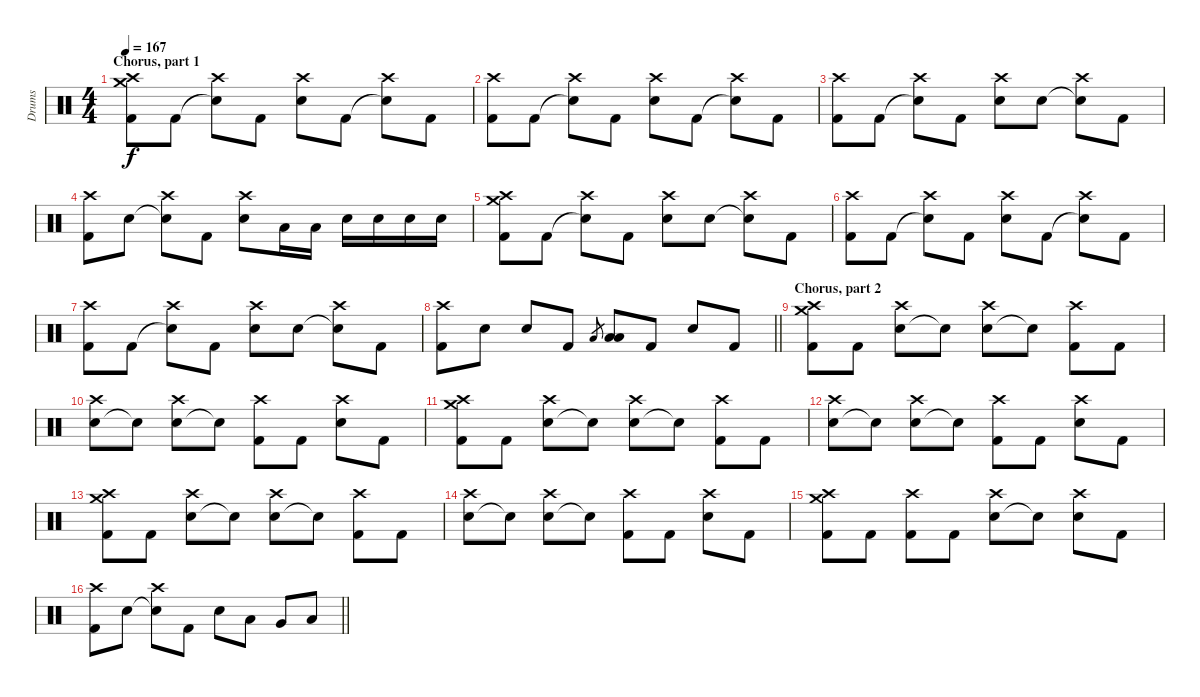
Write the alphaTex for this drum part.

\track ("Drums" "Drums") {instrument percussion}
\staff {score}
\articulation defaults
\ts (4 4)
\section ("" "Chorus, part 1")
\tempo 167
\clef neutral
\ks c
("Kick (hit) 2" "Crash medium (hit)" "Crash high (hit)").8{dy f} "Kick (hit) 2".8 ("Snare (hit)"{t} "Crash high (hit)").8 "Kick (hit) 2".8 ("Electric Snare (hit)" "Crash high (hit)").8 "Kick (hit) 2".8 ("Snare (hit)"{t} "Crash high (hit)").8 "Kick (hit) 2".8 |
("Kick (hit) 2" "Crash high (hit)").8 "Kick (hit) 2".8 ("Snare (hit)"{t} "Crash high (hit)").8 "Kick (hit) 2".8 ("Electric Snare (hit)" "Crash high (hit)").8 "Kick (hit) 2".8 ("Snare (hit)"{t} "Crash high (hit)").8 "Kick (hit) 2".8 |
("Kick (hit) 2" "Crash high (hit)").8 "Kick (hit) 2".8 ("Snare (hit)"{t} "Crash high (hit)").8 "Kick (hit) 2".8 ("Electric Snare (hit)" "Crash high (hit)").8 "Electric Snare (hit)".8 ("Snare (hit)"{t} "Crash high (hit)").8 "Kick (hit) 2".8 |
("Kick (hit) 2" "Crash high (hit)").8 "Electric Snare (hit)".8 ("Snare (hit)"{t} "Crash high (hit)").8 "Kick (hit) 2".8 ("Electric Snare (hit)" "Crash high (hit)").8 "Low Tom (hit)".16 "Low Tom (hit)".16 "Electric Snare (hit)".16 "Electric Snare (hit)".16 "Electric Snare (hit)".16 "Electric Snare (hit)".16 |
("Kick (hit) 2" "Crash medium (hit)" "Crash high (hit)").8 "Kick (hit) 2".8 ("Snare (hit)"{t} "Crash high (hit)").8 "Kick (hit) 2".8 ("Electric Snare (hit)" "Crash high (hit)").8 "Electric Snare (hit)".8 ("Snare (hit)"{t} "Crash high (hit)").8 "Kick (hit) 2".8 |
("Kick (hit) 2" "Crash high (hit)").8 "Kick (hit) 2".8 ("Snare (hit)"{t} "Crash high (hit)").8 "Kick (hit) 2".8 ("Electric Snare (hit)" "Crash high (hit)").8 "Kick (hit) 2".8 ("Snare (hit)"{t} "Crash high (hit)").8 "Kick (hit) 2".8 |
("Kick (hit) 2" "Crash high (hit)").8 "Kick (hit) 2".8 ("Snare (hit)"{t} "Crash high (hit)").8 "Kick (hit) 2".8 ("Electric Snare (hit)" "Crash high (hit)").8 "Electric Snare (hit)".8 ("Snare (hit)"{t} "Crash high (hit)").8 "Kick (hit) 2".8 |
\barLineRight lightlight
("Kick (hit) 2" "Crash high (hit)").8 "Electric Snare (hit)".8 "Electric Snare (hit)".8 "Kick (hit) 2".8 "Low Tom (hit)".8{gr} ("Low Tom (hit)" "Low Floor Tom (hit)").8 "Kick (hit) 2".8 "Electric Snare (hit)".8 "Kick (hit) 2".8 |
\section ("" "Chorus, part 2")
("Kick (hit) 2" "Crash medium (hit)" "Crash high (hit)").8 "Kick (hit) 2".8 ("Electric Snare (hit)" "Crash high (hit)").8 "Snare (hit)"{t}.8 ("Electric Snare (hit)" "Crash high (hit)").8 "Snare (hit)"{t}.8 ("Kick (hit) 2" "Crash high (hit)").8 "Kick (hit) 2".8 |
("Electric Snare (hit)" "Crash high (hit)").8 "Snare (hit)"{t}.8 ("Electric Snare (hit)" "Crash high (hit)").8 "Snare (hit)"{t}.8 ("Kick (hit) 2" "Crash high (hit)").8 "Kick (hit) 2".8 ("Electric Snare (hit)" "Crash high (hit)").8 "Kick (hit) 2".8 |
("Kick (hit) 2" "Crash medium (hit)" "Crash high (hit)").8 "Kick (hit) 2".8 ("Electric Snare (hit)" "Crash high (hit)").8 "Snare (hit)"{t}.8 ("Electric Snare (hit)" "Crash high (hit)").8 "Snare (hit)"{t}.8 ("Kick (hit) 2" "Crash high (hit)").8 "Kick (hit) 2".8 |
("Electric Snare (hit)" "Crash high (hit)").8 "Snare (hit)"{t}.8 ("Electric Snare (hit)" "Crash high (hit)").8 "Snare (hit)"{t}.8 ("Kick (hit) 2" "Crash high (hit)").8 "Kick (hit) 2".8 ("Electric Snare (hit)" "Crash high (hit)").8 "Kick (hit) 2".8 |
("Kick (hit) 2" "Crash medium (hit)" "Crash high (hit)").8 "Kick (hit) 2".8 ("Electric Snare (hit)" "Crash high (hit)").8 "Snare (hit)"{t}.8 ("Electric Snare (hit)" "Crash high (hit)").8 "Snare (hit)"{t}.8 ("Kick (hit) 2" "Crash high (hit)").8 "Kick (hit) 2".8 |
("Electric Snare (hit)" "Crash high (hit)").8 "Snare (hit)"{t}.8 ("Electric Snare (hit)" "Crash high (hit)").8 "Snare (hit)"{t}.8 ("Kick (hit) 2" "Crash high (hit)").8 "Kick (hit) 2".8 ("Electric Snare (hit)" "Crash high (hit)").8 "Kick (hit) 2".8 |
("Kick (hit) 2" "Crash medium (hit)" "Crash high (hit)").8 "Kick (hit) 2".8 ("Kick (hit) 2" "Crash high (hit)").8 "Kick (hit) 2".8 ("Electric Snare (hit)" "Crash high (hit)").8 "Snare (hit)"{t}.8 ("Electric Snare (hit)" "Crash high (hit)").8 "Kick (hit) 2".8 |
\barLineRight lightlight
("Kick (hit) 2" "Crash high (hit)").8 "Electric Snare (hit)".8 ("Snare (hit)"{t} "Crash high (hit)").8 "Kick (hit) 2".8 "Electric Snare (hit)".8 "Low Tom (hit)".8 "Very Low Tom (hit)".8 "Low Floor Tom (hit)".8
